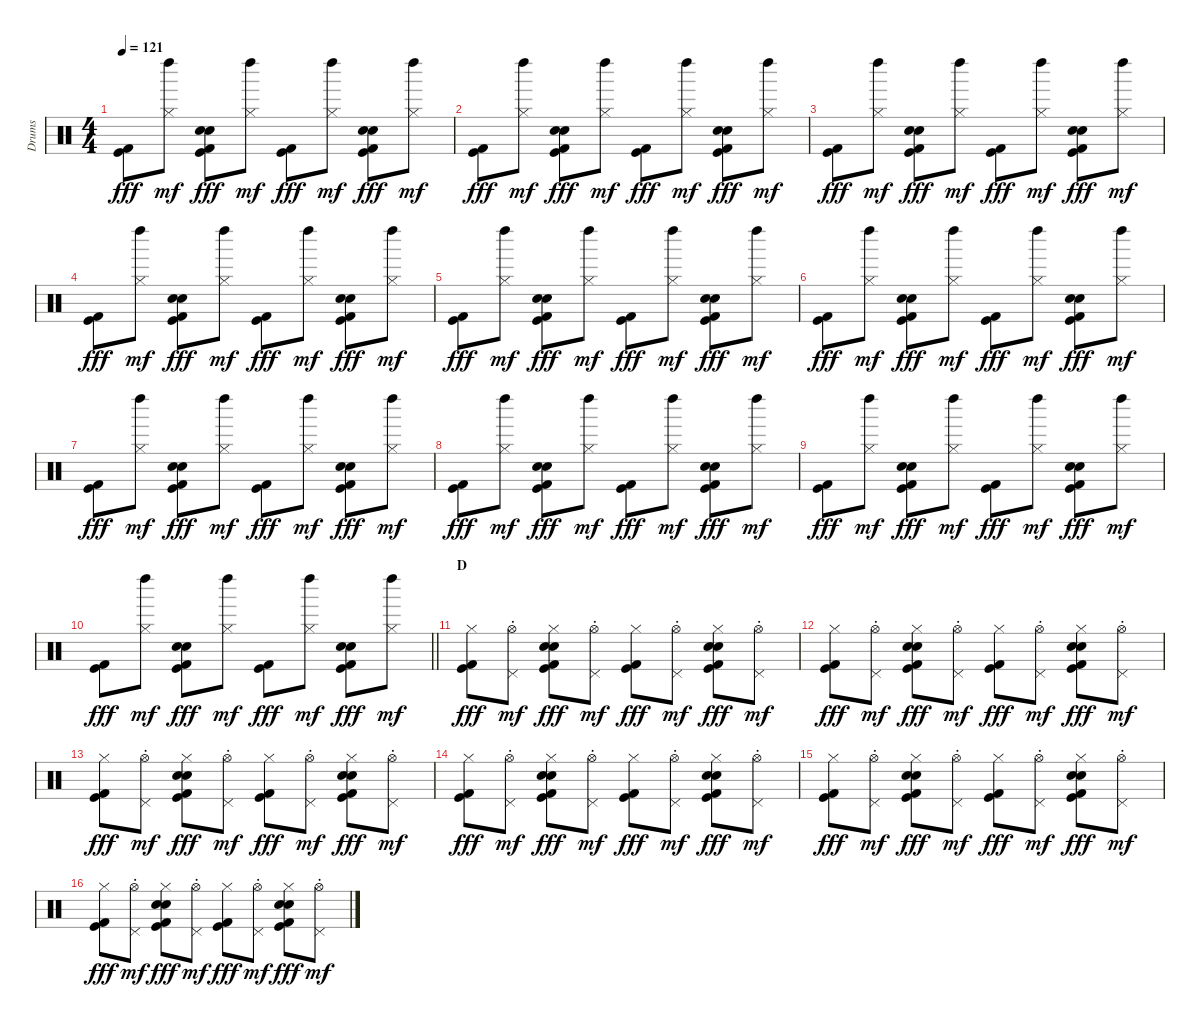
\track ("Drums" "Drums") {instrument percussion}
\staff {score}
\articulation defaults
\ts (4 4)
\tempo 121
\clef neutral
\ks c
("Kick (hit)" "Kick (hit) 2").8{dy fff} ("Left Maraca (hit)" "Hi-Hat (closed)").8{dy mf} ("Hand Clap (hit)" "Snare (hit) 2" "Kick (hit)" "Kick (hit) 2").8{dy fff} ("Left Maraca (hit)" "Hi-Hat (closed)").8{dy mf} ("Kick (hit)" "Kick (hit) 2").8{dy fff} ("Left Maraca (hit)" "Hi-Hat (closed)").8{dy mf} ("Hand Clap (hit)" "Snare (hit) 2" "Kick (hit)" "Kick (hit) 2").8{dy fff} ("Left Maraca (hit)" "Hi-Hat (closed)").8{dy mf} |
("Kick (hit)" "Kick (hit) 2").8{dy fff} ("Left Maraca (hit)" "Hi-Hat (closed)").8{dy mf} ("Hand Clap (hit)" "Snare (hit) 2" "Kick (hit)" "Kick (hit) 2").8{dy fff} ("Left Maraca (hit)" "Hi-Hat (closed)").8{dy mf} ("Kick (hit)" "Kick (hit) 2").8{dy fff} ("Left Maraca (hit)" "Hi-Hat (closed)").8{dy mf} ("Hand Clap (hit)" "Snare (hit) 2" "Kick (hit)" "Kick (hit) 2").8{dy fff} ("Left Maraca (hit)" "Hi-Hat (closed)").8{dy mf} |
("Kick (hit)" "Kick (hit) 2").8{dy fff} ("Left Maraca (hit)" "Hi-Hat (closed)").8{dy mf} ("Hand Clap (hit)" "Snare (hit) 2" "Kick (hit)" "Kick (hit) 2").8{dy fff} ("Left Maraca (hit)" "Hi-Hat (closed)").8{dy mf} ("Kick (hit)" "Kick (hit) 2").8{dy fff} ("Left Maraca (hit)" "Hi-Hat (closed)").8{dy mf} ("Hand Clap (hit)" "Snare (hit) 2" "Kick (hit)" "Kick (hit) 2").8{dy fff} ("Left Maraca (hit)" "Hi-Hat (closed)").8{dy mf} |
("Kick (hit)" "Kick (hit) 2").8{dy fff} ("Left Maraca (hit)" "Hi-Hat (closed)").8{dy mf} ("Hand Clap (hit)" "Snare (hit) 2" "Kick (hit)" "Kick (hit) 2").8{dy fff} ("Left Maraca (hit)" "Hi-Hat (closed)").8{dy mf} ("Kick (hit)" "Kick (hit) 2").8{dy fff} ("Left Maraca (hit)" "Hi-Hat (closed)").8{dy mf} ("Hand Clap (hit)" "Snare (hit) 2" "Kick (hit)" "Kick (hit) 2").8{dy fff} ("Left Maraca (hit)" "Hi-Hat (closed)").8{dy mf} |
("Kick (hit)" "Kick (hit) 2").8{dy fff} ("Left Maraca (hit)" "Hi-Hat (closed)").8{dy mf} ("Hand Clap (hit)" "Snare (hit) 2" "Kick (hit)" "Kick (hit) 2").8{dy fff} ("Left Maraca (hit)" "Hi-Hat (closed)").8{dy mf} ("Kick (hit)" "Kick (hit) 2").8{dy fff} ("Left Maraca (hit)" "Hi-Hat (closed)").8{dy mf} ("Hand Clap (hit)" "Snare (hit) 2" "Kick (hit)" "Kick (hit) 2").8{dy fff} ("Left Maraca (hit)" "Hi-Hat (closed)").8{dy mf} |
("Kick (hit)" "Kick (hit) 2").8{dy fff} ("Left Maraca (hit)" "Hi-Hat (closed)").8{dy mf} ("Hand Clap (hit)" "Snare (hit) 2" "Kick (hit)" "Kick (hit) 2").8{dy fff} ("Left Maraca (hit)" "Hi-Hat (closed)").8{dy mf} ("Kick (hit)" "Kick (hit) 2").8{dy fff} ("Left Maraca (hit)" "Hi-Hat (closed)").8{dy mf} ("Hand Clap (hit)" "Snare (hit) 2" "Kick (hit)" "Kick (hit) 2").8{dy fff} ("Left Maraca (hit)" "Hi-Hat (closed)").8{dy mf} |
("Kick (hit)" "Kick (hit) 2").8{dy fff} ("Left Maraca (hit)" "Hi-Hat (closed)").8{dy mf} ("Hand Clap (hit)" "Snare (hit) 2" "Kick (hit)" "Kick (hit) 2").8{dy fff} ("Left Maraca (hit)" "Hi-Hat (closed)").8{dy mf} ("Kick (hit)" "Kick (hit) 2").8{dy fff} ("Left Maraca (hit)" "Hi-Hat (closed)").8{dy mf} ("Hand Clap (hit)" "Snare (hit) 2" "Kick (hit)" "Kick (hit) 2").8{dy fff} ("Left Maraca (hit)" "Hi-Hat (closed)").8{dy mf} |
("Kick (hit)" "Kick (hit) 2").8{dy fff} ("Left Maraca (hit)" "Hi-Hat (closed)").8{dy mf} ("Hand Clap (hit)" "Snare (hit) 2" "Kick (hit)" "Kick (hit) 2").8{dy fff} ("Left Maraca (hit)" "Hi-Hat (closed)").8{dy mf} ("Kick (hit)" "Kick (hit) 2").8{dy fff} ("Left Maraca (hit)" "Hi-Hat (closed)").8{dy mf} ("Hand Clap (hit)" "Snare (hit) 2" "Kick (hit)" "Kick (hit) 2").8{dy fff} ("Left Maraca (hit)" "Hi-Hat (closed)").8{dy mf} |
("Kick (hit)" "Kick (hit) 2").8{dy fff} ("Left Maraca (hit)" "Hi-Hat (closed)").8{dy mf} ("Hand Clap (hit)" "Snare (hit) 2" "Kick (hit)" "Kick (hit) 2").8{dy fff} ("Left Maraca (hit)" "Hi-Hat (closed)").8{dy mf} ("Kick (hit)" "Kick (hit) 2").8{dy fff} ("Left Maraca (hit)" "Hi-Hat (closed)").8{dy mf} ("Hand Clap (hit)" "Snare (hit) 2" "Kick (hit)" "Kick (hit) 2").8{dy fff} ("Left Maraca (hit)" "Hi-Hat (closed)").8{dy mf} |
\barLineRight lightlight
("Kick (hit)" "Kick (hit) 2").8{dy fff} ("Left Maraca (hit)" "Hi-Hat (closed)").8{dy mf} ("Hand Clap (hit)" "Snare (hit) 2" "Kick (hit)" "Kick (hit) 2").8{dy fff} ("Left Maraca (hit)" "Hi-Hat (closed)").8{dy mf} ("Kick (hit)" "Kick (hit) 2").8{dy fff} ("Left Maraca (hit)" "Hi-Hat (closed)").8{dy mf} ("Hand Clap (hit)" "Snare (hit) 2" "Kick (hit)" "Kick (hit) 2").8{dy fff} ("Left Maraca (hit)" "Hi-Hat (closed)").8{dy mf} |
\section ("" "D")
("Hi-Hat (closed)" "Kick (hit)" "Kick (hit) 2").8{dy fff} ("Pedal Hi-Hat (hit)"{st} "Hi-Hat (open)"{st}).8{dy mf} ("Hi-Hat (closed)" "Hand Clap (hit)" "Snare (hit) 2" "Kick (hit)" "Kick (hit) 2").8{dy fff} ("Pedal Hi-Hat (hit)"{st} "Hi-Hat (open)"{st}).8{dy mf} ("Hi-Hat (closed)" "Kick (hit)" "Kick (hit) 2").8{dy fff} ("Pedal Hi-Hat (hit)"{st} "Hi-Hat (open)"{st}).8{dy mf} ("Hi-Hat (closed)" "Hand Clap (hit)" "Snare (hit) 2" "Kick (hit)" "Kick (hit) 2").8{dy fff} ("Pedal Hi-Hat (hit)"{st} "Hi-Hat (open)"{st}).8{dy mf} |
("Hi-Hat (closed)" "Kick (hit)" "Kick (hit) 2").8{dy fff} ("Pedal Hi-Hat (hit)"{st} "Hi-Hat (open)"{st}).8{dy mf} ("Hi-Hat (closed)" "Hand Clap (hit)" "Snare (hit) 2" "Kick (hit)" "Kick (hit) 2").8{dy fff} ("Pedal Hi-Hat (hit)"{st} "Hi-Hat (open)"{st}).8{dy mf} ("Hi-Hat (closed)" "Kick (hit)" "Kick (hit) 2").8{dy fff} ("Pedal Hi-Hat (hit)"{st} "Hi-Hat (open)"{st}).8{dy mf} ("Hi-Hat (closed)" "Hand Clap (hit)" "Snare (hit) 2" "Kick (hit)" "Kick (hit) 2").8{dy fff} ("Pedal Hi-Hat (hit)"{st} "Hi-Hat (open)"{st}).8{dy mf} |
("Hi-Hat (closed)" "Kick (hit)" "Kick (hit) 2").8{dy fff} ("Pedal Hi-Hat (hit)"{st} "Hi-Hat (open)"{st}).8{dy mf} ("Hi-Hat (closed)" "Hand Clap (hit)" "Snare (hit) 2" "Kick (hit)" "Kick (hit) 2").8{dy fff} ("Pedal Hi-Hat (hit)"{st} "Hi-Hat (open)"{st}).8{dy mf} ("Hi-Hat (closed)" "Kick (hit)" "Kick (hit) 2").8{dy fff} ("Pedal Hi-Hat (hit)"{st} "Hi-Hat (open)"{st}).8{dy mf} ("Hi-Hat (closed)" "Hand Clap (hit)" "Snare (hit) 2" "Kick (hit)" "Kick (hit) 2").8{dy fff} ("Pedal Hi-Hat (hit)"{st} "Hi-Hat (open)"{st}).8{dy mf} |
("Hi-Hat (closed)" "Kick (hit)" "Kick (hit) 2").8{dy fff} ("Pedal Hi-Hat (hit)"{st} "Hi-Hat (open)"{st}).8{dy mf} ("Hi-Hat (closed)" "Hand Clap (hit)" "Snare (hit) 2" "Kick (hit)" "Kick (hit) 2").8{dy fff} ("Pedal Hi-Hat (hit)"{st} "Hi-Hat (open)"{st}).8{dy mf} ("Hi-Hat (closed)" "Kick (hit)" "Kick (hit) 2").8{dy fff} ("Pedal Hi-Hat (hit)"{st} "Hi-Hat (open)"{st}).8{dy mf} ("Hi-Hat (closed)" "Hand Clap (hit)" "Snare (hit) 2" "Kick (hit)" "Kick (hit) 2").8{dy fff} ("Pedal Hi-Hat (hit)"{st} "Hi-Hat (open)"{st}).8{dy mf} |
("Hi-Hat (closed)" "Kick (hit)" "Kick (hit) 2").8{dy fff} ("Pedal Hi-Hat (hit)"{st} "Hi-Hat (open)"{st}).8{dy mf} ("Hi-Hat (closed)" "Hand Clap (hit)" "Snare (hit) 2" "Kick (hit)" "Kick (hit) 2").8{dy fff} ("Pedal Hi-Hat (hit)"{st} "Hi-Hat (open)"{st}).8{dy mf} ("Hi-Hat (closed)" "Kick (hit)" "Kick (hit) 2").8{dy fff} ("Pedal Hi-Hat (hit)"{st} "Hi-Hat (open)"{st}).8{dy mf} ("Hi-Hat (closed)" "Hand Clap (hit)" "Snare (hit) 2" "Kick (hit)" "Kick (hit) 2").8{dy fff} ("Pedal Hi-Hat (hit)"{st} "Hi-Hat (open)"{st}).8{dy mf} |
("Hi-Hat (closed)" "Kick (hit)" "Kick (hit) 2").8{dy fff} ("Pedal Hi-Hat (hit)"{st} "Hi-Hat (open)"{st}).8{dy mf} ("Hi-Hat (closed)" "Hand Clap (hit)" "Snare (hit) 2" "Kick (hit)" "Kick (hit) 2").8{dy fff} ("Pedal Hi-Hat (hit)"{st} "Hi-Hat (open)"{st}).8{dy mf} ("Hi-Hat (closed)" "Kick (hit)" "Kick (hit) 2").8{dy fff} ("Pedal Hi-Hat (hit)"{st} "Hi-Hat (open)"{st}).8{dy mf} ("Hi-Hat (closed)" "Hand Clap (hit)" "Snare (hit) 2" "Kick (hit)" "Kick (hit) 2").8{dy fff} ("Pedal Hi-Hat (hit)"{st} "Hi-Hat (open)"{st}).8{dy mf}
